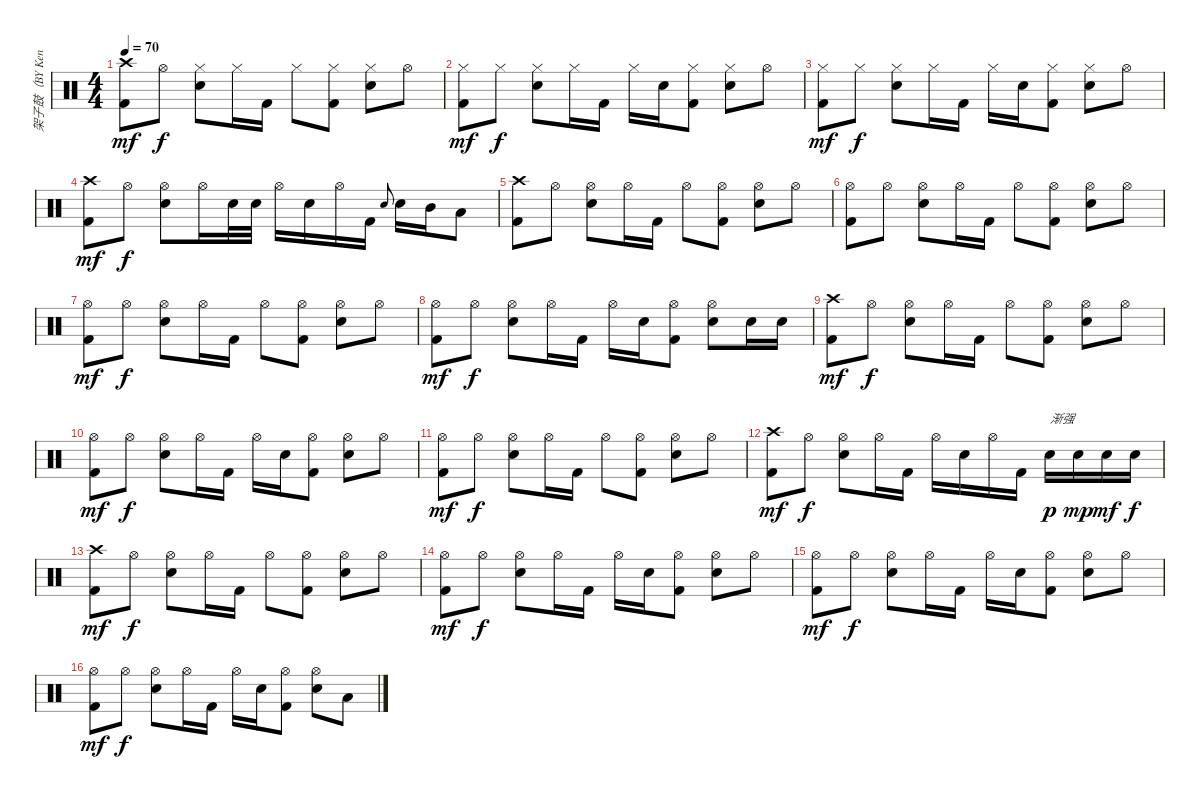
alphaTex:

\track ("架子鼓（BY Ken）" "架子鼓（BY Ken") {instrument percussion}
\staff {score}
\articulation defaults
\ts (4 4)
\tempo 70
\clef neutral
\ks c
("Crash high (hit)" "Kick (hit) 2").8{dy mf} "Hi-Hat (open)".8{dy f} ("Hi-Hat (closed)" "Electric Snare (hit)").8 "Hi-Hat (closed)".16 "Kick (hit) 2".16 "Hi-Hat (closed)".8 ("Hi-Hat (closed)" "Kick (hit) 2").8 ("Hi-Hat (closed)" "Electric Snare (hit)").8 "Hi-Hat (open)".8 |
("Hi-Hat (closed)" "Kick (hit) 2").8{dy mf} "Hi-Hat (closed)".8{dy f} ("Hi-Hat (closed)" "Electric Snare (hit)").8 "Hi-Hat (closed)".16 "Kick (hit) 2".16 "Hi-Hat (closed)".16 "Electric Snare (hit)".16 ("Hi-Hat (closed)" "Kick (hit) 2").8 ("Hi-Hat (closed)" "Electric Snare (hit)").8 "Hi-Hat (open)".8 |
("Hi-Hat (closed)" "Kick (hit) 2").8{dy mf} "Hi-Hat (closed)".8{dy f} ("Hi-Hat (closed)" "Electric Snare (hit)").8 "Hi-Hat (closed)".16 "Kick (hit) 2".16 "Hi-Hat (closed)".16 "Electric Snare (hit)".16 ("Hi-Hat (closed)" "Kick (hit) 2").8 ("Hi-Hat (closed)" "Electric Snare (hit)").8 "Hi-Hat (open)".8 |
("Crash high (hit)" "Kick (hit) 2").8{dy mf} "Hi-Hat (open)".8{dy f} ("Hi-Hat (open)" "Electric Snare (hit)").8 "Hi-Hat (open)".16 "Electric Snare (hit)".32 "Electric Snare (hit)".32 "Hi-Hat (open)".16 "Electric Snare (hit)".16 "Hi-Hat (open)".16 "Kick (hit) 2".16 "Electric Snare (hit)".8{gr onbeat} "Electric Snare (hit)".16 "Mid Tom (hit)".16 "Low Floor Tom (hit)".8 |
("Crash high (hit)" "Kick (hit) 2").8 "Hi-Hat (open)".8 ("Hi-Hat (open)" "Electric Snare (hit)").8 "Hi-Hat (open)".16 "Kick (hit) 2".16 "Hi-Hat (open)".8 ("Hi-Hat (open)" "Kick (hit) 2").8 ("Hi-Hat (open)" "Electric Snare (hit)").8 "Hi-Hat (open)".8 |
("Hi-Hat (open)" "Kick (hit) 2").8 "Hi-Hat (open)".8 ("Hi-Hat (open)" "Electric Snare (hit)").8 "Hi-Hat (open)".16 "Kick (hit) 2".16 "Hi-Hat (open)".8 ("Hi-Hat (open)" "Kick (hit) 2").8 ("Hi-Hat (open)" "Electric Snare (hit)").8 "Hi-Hat (open)".8 |
("Hi-Hat (open)" "Kick (hit) 2").8{dy mf} "Hi-Hat (open)".8{dy f} ("Hi-Hat (open)" "Electric Snare (hit)").8 "Hi-Hat (open)".16 "Kick (hit) 2".16 "Hi-Hat (open)".8 ("Hi-Hat (open)" "Kick (hit) 2").8 ("Hi-Hat (open)" "Electric Snare (hit)").8 "Hi-Hat (open)".8 |
("Hi-Hat (open)" "Kick (hit) 2").8{dy mf} "Hi-Hat (open)".8{dy f} ("Hi-Hat (open)" "Electric Snare (hit)").8 "Hi-Hat (open)".16 "Kick (hit) 2".16 "Hi-Hat (open)".16 "Electric Snare (hit)".16 ("Hi-Hat (open)" "Kick (hit) 2").8 ("Hi-Hat (open)" "Electric Snare (hit)").8 "Electric Snare (hit)".16 "Electric Snare (hit)".16 |
("Crash high (hit)" "Kick (hit) 2").8{dy mf} "Hi-Hat (open)".8{dy f} ("Hi-Hat (open)" "Electric Snare (hit)").8 "Hi-Hat (open)".16 "Kick (hit) 2".16 "Hi-Hat (open)".8 ("Hi-Hat (open)" "Kick (hit) 2").8 ("Hi-Hat (open)" "Electric Snare (hit)").8 "Hi-Hat (open)".8 |
("Hi-Hat (open)" "Kick (hit) 2").8{dy mf} "Hi-Hat (open)".8{dy f} ("Hi-Hat (open)" "Electric Snare (hit)").8 "Hi-Hat (open)".16 "Kick (hit) 2".16 "Hi-Hat (open)".16 "Electric Snare (hit)".16 ("Hi-Hat (open)" "Kick (hit) 2").8 ("Hi-Hat (open)" "Electric Snare (hit)").8 "Hi-Hat (open)".8 |
("Hi-Hat (open)" "Kick (hit) 2").8{dy mf} "Hi-Hat (open)".8{dy f} ("Hi-Hat (open)" "Electric Snare (hit)").8 "Hi-Hat (open)".16 "Kick (hit) 2".16 "Hi-Hat (open)".8 ("Hi-Hat (open)" "Kick (hit) 2").8 ("Hi-Hat (open)" "Electric Snare (hit)").8 "Hi-Hat (open)".8 |
("Crash high (hit)" "Kick (hit) 2").8{dy mf} "Hi-Hat (open)".8{dy f} ("Hi-Hat (open)" "Electric Snare (hit)").8 "Hi-Hat (open)".16 "Kick (hit) 2".16 "Hi-Hat (open)".16 "Electric Snare (hit)".16 "Hi-Hat (open)".16 "Kick (hit) 2".16 "Electric Snare (hit)".16{txt "渐强" dy p} "Electric Snare (hit)".16{dy mp} "Electric Snare (hit)".16{dy mf} "Electric Snare (hit)".16{dy f} |
("Crash high (hit)" "Kick (hit) 2").8{dy mf} "Hi-Hat (open)".8{dy f} ("Hi-Hat (open)" "Electric Snare (hit)").8 "Hi-Hat (open)".16 "Kick (hit) 2".16 "Hi-Hat (open)".8 ("Hi-Hat (open)" "Kick (hit) 2").8 ("Hi-Hat (open)" "Electric Snare (hit)").8 "Hi-Hat (open)".8 |
("Hi-Hat (open)" "Kick (hit) 2").8{dy mf} "Hi-Hat (open)".8{dy f} ("Hi-Hat (open)" "Electric Snare (hit)").8 "Hi-Hat (open)".16 "Kick (hit) 2".16 "Hi-Hat (open)".16 "Electric Snare (hit)".16 ("Hi-Hat (open)" "Kick (hit) 2").8 ("Hi-Hat (open)" "Electric Snare (hit)").8 "Hi-Hat (open)".8 |
("Hi-Hat (open)" "Kick (hit) 2").8{dy mf} "Hi-Hat (open)".8{dy f} ("Hi-Hat (open)" "Electric Snare (hit)").8 "Hi-Hat (open)".16 "Kick (hit) 2".16 "Hi-Hat (open)".16 "Electric Snare (hit)".16 ("Hi-Hat (open)" "Kick (hit) 2").8 ("Hi-Hat (open)" "Electric Snare (hit)").8 "Hi-Hat (open)".8 |
("Hi-Hat (open)" "Kick (hit) 2").8{dy mf} "Hi-Hat (open)".8{dy f} ("Hi-Hat (open)" "Electric Snare (hit)").8 "Hi-Hat (open)".16 "Kick (hit) 2".16 "Hi-Hat (open)".16 "Electric Snare (hit)".16 ("Hi-Hat (open)" "Kick (hit) 2").8 ("Hi-Hat (open)" "Electric Snare (hit)").8 "Low Floor Tom (hit)".8
